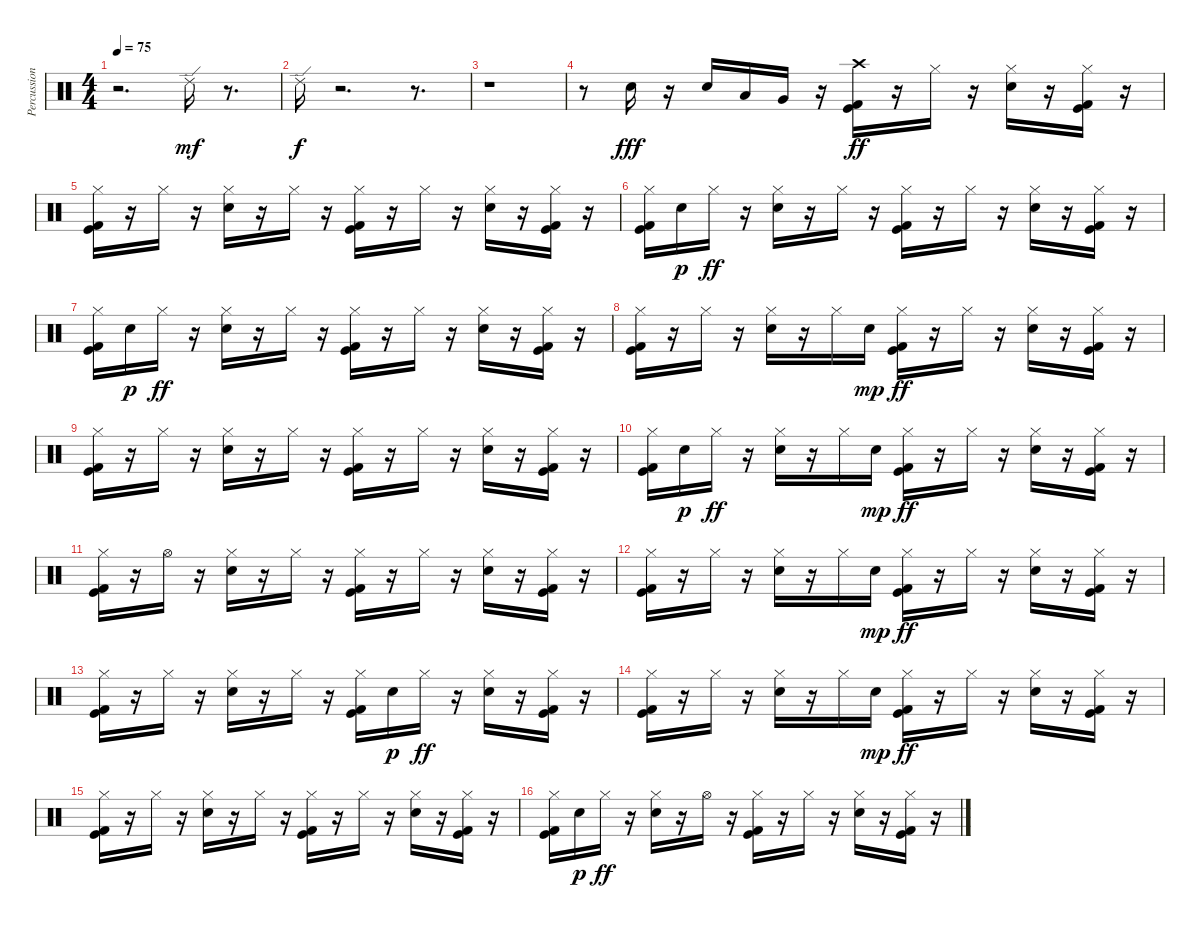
\track ("Percussion" "Percussion") {instrument percussion}
\staff {score}
\articulation defaults
\ts (4 4)
\tempo 75
\clef neutral
\ks c
r.2{d dy fff} "Ride (edge) 2".16{dy mf} r.8{d} |
"Ride (edge) 2".16{dy f} r.2{d} r.8{d} |
r.1 |
r.8 "Electric Snare (hit)".16{dy fff} r.16 "Electric Snare (hit)".16 "Low Tom (hit)".16 "Very Low Tom (hit)".16 r.16 ("Crash high (hit)" "Kick (hit)" "Kick (hit) 2").16{dy ff} r.16 "Hi-Hat (closed)".16 r.16 ("Electric Snare (hit)" "Hi-Hat (closed)").16 r.16 ("Kick (hit)" "Kick (hit) 2" "Hi-Hat (closed)").16 r.16 |
("Kick (hit)" "Kick (hit) 2" "Hi-Hat (closed)").16 r.16 "Hi-Hat (closed)".16 r.16 ("Electric Snare (hit)" "Hi-Hat (closed)").16 r.16 "Hi-Hat (closed)".16 r.16 ("Kick (hit)" "Kick (hit) 2" "Hi-Hat (closed)").16 r.16 "Hi-Hat (closed)".16 r.16 ("Electric Snare (hit)" "Hi-Hat (closed)").16 r.16 ("Kick (hit)" "Kick (hit) 2" "Hi-Hat (closed)").16 r.16 |
("Kick (hit)" "Kick (hit) 2" "Hi-Hat (closed)").16 "Electric Snare (hit)".16{dy p} "Hi-Hat (closed)".16{dy ff} r.16 ("Electric Snare (hit)" "Hi-Hat (closed)").16 r.16 "Hi-Hat (closed)".16 r.16 ("Kick (hit)" "Kick (hit) 2" "Hi-Hat (closed)").16 r.16 "Hi-Hat (closed)".16 r.16 ("Electric Snare (hit)" "Hi-Hat (closed)").16 r.16 ("Kick (hit)" "Kick (hit) 2" "Hi-Hat (closed)").16 r.16 |
("Kick (hit)" "Kick (hit) 2" "Hi-Hat (closed)").16 "Electric Snare (hit)".16{dy p} "Hi-Hat (closed)".16{dy ff} r.16 ("Electric Snare (hit)" "Hi-Hat (closed)").16 r.16 "Hi-Hat (closed)".16 r.16 ("Kick (hit)" "Kick (hit) 2" "Hi-Hat (closed)").16 r.16 "Hi-Hat (closed)".16 r.16 ("Electric Snare (hit)" "Hi-Hat (closed)").16 r.16 ("Kick (hit)" "Kick (hit) 2" "Hi-Hat (closed)").16 r.16 |
("Kick (hit)" "Kick (hit) 2" "Hi-Hat (closed)").16 r.16 "Hi-Hat (closed)".16 r.16 ("Electric Snare (hit)" "Hi-Hat (closed)").16 r.16 "Hi-Hat (closed)".16 "Electric Snare (hit)".16{dy mp} ("Kick (hit)" "Kick (hit) 2" "Hi-Hat (closed)").16{dy ff} r.16 "Hi-Hat (closed)".16 r.16 ("Electric Snare (hit)" "Hi-Hat (closed)").16 r.16 ("Kick (hit)" "Kick (hit) 2" "Hi-Hat (closed)").16 r.16 |
("Kick (hit)" "Kick (hit) 2" "Hi-Hat (closed)").16 r.16 "Hi-Hat (closed)".16 r.16 ("Electric Snare (hit)" "Hi-Hat (closed)").16 r.16 "Hi-Hat (closed)".16 r.16 ("Kick (hit)" "Kick (hit) 2" "Hi-Hat (closed)").16 r.16 "Hi-Hat (closed)".16 r.16 ("Electric Snare (hit)" "Hi-Hat (closed)").16 r.16 ("Kick (hit)" "Kick (hit) 2" "Hi-Hat (closed)").16 r.16 |
("Kick (hit)" "Kick (hit) 2" "Hi-Hat (closed)").16 "Electric Snare (hit)".16{dy p} "Hi-Hat (closed)".16{dy ff} r.16 ("Electric Snare (hit)" "Hi-Hat (closed)").16 r.16 "Hi-Hat (closed)".16 "Electric Snare (hit)".16{dy mp} ("Kick (hit)" "Kick (hit) 2" "Hi-Hat (closed)").16{dy ff} r.16 "Hi-Hat (closed)".16 r.16 ("Electric Snare (hit)" "Hi-Hat (closed)").16 r.16 ("Kick (hit)" "Kick (hit) 2" "Hi-Hat (closed)").16 r.16 |
("Kick (hit)" "Kick (hit) 2" "Hi-Hat (closed)").16 r.16 "Hi-Hat (open)".16 r.16 ("Electric Snare (hit)" "Hi-Hat (closed)").16 r.16 "Hi-Hat (closed)".16 r.16 ("Kick (hit)" "Kick (hit) 2" "Hi-Hat (closed)").16 r.16 "Hi-Hat (closed)".16 r.16 ("Electric Snare (hit)" "Hi-Hat (closed)").16 r.16 ("Kick (hit)" "Kick (hit) 2" "Hi-Hat (closed)").16 r.16 |
("Kick (hit)" "Kick (hit) 2" "Hi-Hat (closed)").16 r.16 "Hi-Hat (closed)".16 r.16 ("Electric Snare (hit)" "Hi-Hat (closed)").16 r.16 "Hi-Hat (closed)".16 "Electric Snare (hit)".16{dy mp} ("Kick (hit)" "Kick (hit) 2" "Hi-Hat (closed)").16{dy ff} r.16 "Hi-Hat (closed)".16 r.16 ("Electric Snare (hit)" "Hi-Hat (closed)").16 r.16 ("Kick (hit)" "Kick (hit) 2" "Hi-Hat (closed)").16 r.16 |
("Kick (hit)" "Kick (hit) 2" "Hi-Hat (closed)").16 r.16 "Hi-Hat (closed)".16 r.16 ("Electric Snare (hit)" "Hi-Hat (closed)").16 r.16 "Hi-Hat (closed)".16 r.16 ("Kick (hit)" "Kick (hit) 2" "Hi-Hat (closed)").16 "Electric Snare (hit)".16{dy p} "Hi-Hat (closed)".16{dy ff} r.16 ("Electric Snare (hit)" "Hi-Hat (closed)").16 r.16 ("Kick (hit)" "Kick (hit) 2" "Hi-Hat (closed)").16 r.16 |
("Kick (hit)" "Kick (hit) 2" "Hi-Hat (closed)").16 r.16 "Hi-Hat (closed)".16 r.16 ("Electric Snare (hit)" "Hi-Hat (closed)").16 r.16 "Hi-Hat (closed)".16 "Electric Snare (hit)".16{dy mp} ("Kick (hit)" "Kick (hit) 2" "Hi-Hat (closed)").16{dy ff} r.16 "Hi-Hat (closed)".16 r.16 ("Electric Snare (hit)" "Hi-Hat (closed)").16 r.16 ("Kick (hit)" "Kick (hit) 2" "Hi-Hat (closed)").16 r.16 |
("Kick (hit)" "Kick (hit) 2" "Hi-Hat (closed)").16 r.16 "Hi-Hat (closed)".16 r.16 ("Electric Snare (hit)" "Hi-Hat (closed)").16 r.16 "Hi-Hat (closed)".16 r.16 ("Kick (hit)" "Kick (hit) 2" "Hi-Hat (closed)").16 r.16 "Hi-Hat (closed)".16 r.16 ("Electric Snare (hit)" "Hi-Hat (closed)").16 r.16 ("Kick (hit)" "Kick (hit) 2" "Hi-Hat (closed)").16 r.16 |
("Kick (hit)" "Kick (hit) 2" "Hi-Hat (closed)").16 "Electric Snare (hit)".16{dy p} "Hi-Hat (closed)".16{dy ff} r.16 ("Electric Snare (hit)" "Hi-Hat (closed)").16 r.16 "Hi-Hat (open)".16 r.16 ("Kick (hit)" "Kick (hit) 2" "Hi-Hat (closed)").16 r.16 "Hi-Hat (closed)".16 r.16 ("Electric Snare (hit)" "Hi-Hat (closed)").16 r.16 ("Kick (hit)" "Kick (hit) 2" "Hi-Hat (closed)").16 r.16
